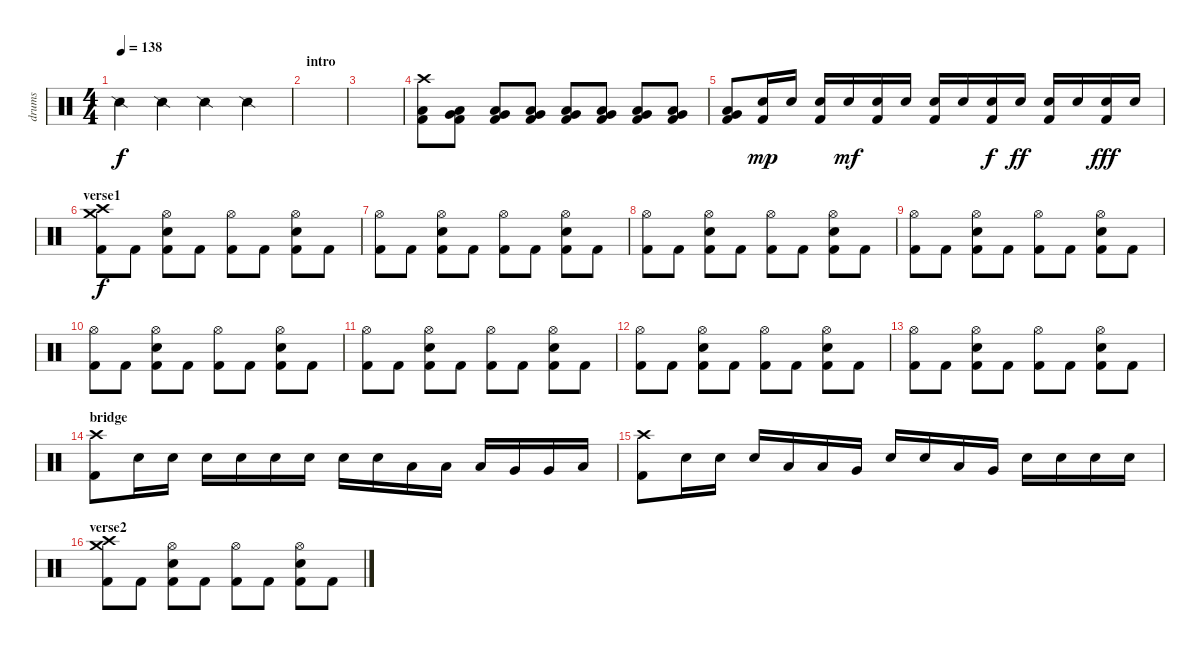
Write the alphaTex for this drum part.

\track ("drums" "drums") {instrument percussion}
\staff {score}
\articulation defaults
\ts (4 4)
\tempo 138
\clef neutral
\ks c "Snare (side stick) 2".4{dy f} "Snare (side stick) 2".4 "Snare (side stick) 2".4 "Snare (side stick) 2".4
|
\section ("" "intro")
|
|
("Crash high (hit)" "Low Floor Tom (hit)" "Kick (hit) 2").8 ("Very Low Tom (hit)" "Low Floor Tom (hit)" "Kick (hit) 2").8 ("Very Low Tom (hit)" "Low Floor Tom (hit)" "Kick (hit) 2").8 ("Very Low Tom (hit)" "Low Floor Tom (hit)" "Kick (hit) 2").8 ("Very Low Tom (hit)" "Low Floor Tom (hit)" "Kick (hit) 2").8 ("Very Low Tom (hit)" "Low Floor Tom (hit)" "Kick (hit) 2").8 ("Very Low Tom (hit)" "Low Floor Tom (hit)" "Kick (hit) 2").8 ("Very Low Tom (hit)" "Low Floor Tom (hit)" "Kick (hit) 2").8 |
("Very Low Tom (hit)" "Low Floor Tom (hit)" "Kick (hit) 2").8 ("Electric Snare (hit)" "Kick (hit) 2").16{dy mp} "Electric Snare (hit)".16 ("Electric Snare (hit)" "Kick (hit) 2").16 "Electric Snare (hit)".16{dy mf} ("Electric Snare (hit)" "Kick (hit) 2").16 "Electric Snare (hit)".16 ("Electric Snare (hit)" "Kick (hit) 2").16 "Electric Snare (hit)".16 ("Electric Snare (hit)" "Kick (hit) 2").16{dy f} "Electric Snare (hit)".16{dy ff} ("Electric Snare (hit)" "Kick (hit) 2").16 "Electric Snare (hit)".16 ("Electric Snare (hit)" "Kick (hit) 2").16{dy fff} "Electric Snare (hit)".16 |
\section ("" "verse1")
("Crash high (hit)" "Crash medium (hit)" "Kick (hit) 2").8{dy f} "Kick (hit) 2".8 ("Hi-Hat (open)" "Electric Snare (hit)" "Kick (hit) 2").8 "Kick (hit) 2".8 ("Hi-Hat (open)" "Kick (hit) 2").8 "Kick (hit) 2".8 ("Hi-Hat (open)" "Electric Snare (hit)" "Kick (hit) 2").8 "Kick (hit) 2".8 |
("Hi-Hat (open)" "Kick (hit) 2").8 "Kick (hit) 2".8 ("Hi-Hat (open)" "Electric Snare (hit)" "Kick (hit) 2").8 "Kick (hit) 2".8 ("Hi-Hat (open)" "Kick (hit) 2").8 "Kick (hit) 2".8 ("Hi-Hat (open)" "Electric Snare (hit)" "Kick (hit) 2").8 "Kick (hit) 2".8 |
("Hi-Hat (open)" "Kick (hit) 2").8 "Kick (hit) 2".8 ("Hi-Hat (open)" "Electric Snare (hit)" "Kick (hit) 2").8 "Kick (hit) 2".8 ("Hi-Hat (open)" "Kick (hit) 2").8 "Kick (hit) 2".8 ("Hi-Hat (open)" "Electric Snare (hit)" "Kick (hit) 2").8 "Kick (hit) 2".8 |
("Hi-Hat (open)" "Kick (hit) 2").8 "Kick (hit) 2".8 ("Hi-Hat (open)" "Electric Snare (hit)" "Kick (hit) 2").8 "Kick (hit) 2".8 ("Hi-Hat (open)" "Kick (hit) 2").8 "Kick (hit) 2".8 ("Hi-Hat (open)" "Electric Snare (hit)" "Kick (hit) 2").8 "Kick (hit) 2".8 |
("Hi-Hat (open)" "Kick (hit) 2").8 "Kick (hit) 2".8 ("Hi-Hat (open)" "Electric Snare (hit)" "Kick (hit) 2").8 "Kick (hit) 2".8 ("Hi-Hat (open)" "Kick (hit) 2").8 "Kick (hit) 2".8 ("Hi-Hat (open)" "Electric Snare (hit)" "Kick (hit) 2").8 "Kick (hit) 2".8 |
("Hi-Hat (open)" "Kick (hit) 2").8 "Kick (hit) 2".8 ("Hi-Hat (open)" "Electric Snare (hit)" "Kick (hit) 2").8 "Kick (hit) 2".8 ("Hi-Hat (open)" "Kick (hit) 2").8 "Kick (hit) 2".8 ("Hi-Hat (open)" "Electric Snare (hit)" "Kick (hit) 2").8 "Kick (hit) 2".8 |
("Hi-Hat (open)" "Kick (hit) 2").8 "Kick (hit) 2".8 ("Hi-Hat (open)" "Electric Snare (hit)" "Kick (hit) 2").8 "Kick (hit) 2".8 ("Hi-Hat (open)" "Kick (hit) 2").8 "Kick (hit) 2".8 ("Hi-Hat (open)" "Electric Snare (hit)" "Kick (hit) 2").8 "Kick (hit) 2".8 |
("Hi-Hat (open)" "Kick (hit) 2").8 "Kick (hit) 2".8 ("Hi-Hat (open)" "Electric Snare (hit)" "Kick (hit) 2").8 "Kick (hit) 2".8 ("Hi-Hat (open)" "Kick (hit) 2").8 "Kick (hit) 2".8 ("Hi-Hat (open)" "Electric Snare (hit)" "Kick (hit) 2").8 "Kick (hit) 2".8 |
\section ("" "bridge")
("Crash high (hit)" "Kick (hit) 2").8 "Electric Snare (hit)".16 "Electric Snare (hit)".16 "Electric Snare (hit)".16 "Electric Snare (hit)".16 "Electric Snare (hit)".16 "Electric Snare (hit)".16 "Electric Snare (hit)".16 "Electric Snare (hit)".16 "Low Tom (hit)".16 "Low Tom (hit)".16 "Low Tom (hit)".16 "Very Low Tom (hit)".16 "Very Low Tom (hit)".16 "Low Floor Tom (hit)".16 |
("Crash high (hit)" "Kick (hit) 2").8 "Electric Snare (hit)".16 "Electric Snare (hit)".16 "Electric Snare (hit)".16 "Low Tom (hit)".16 "Low Tom (hit)".16 "Very Low Tom (hit)".16 "Electric Snare (hit)".16 "Electric Snare (hit)".16 "Low Tom (hit)".16 "Very Low Tom (hit)".16 "Electric Snare (hit)".16 "Electric Snare (hit)".16 "Electric Snare (hit)".16 "Electric Snare (hit)".16 |
\section ("" "verse2")
("Crash high (hit)" "Crash medium (hit)" "Kick (hit) 2").8 "Kick (hit) 2".8 ("Hi-Hat (open)" "Electric Snare (hit)" "Kick (hit) 2").8 "Kick (hit) 2".8 ("Hi-Hat (open)" "Kick (hit) 2").8 "Kick (hit) 2".8 ("Hi-Hat (open)" "Electric Snare (hit)" "Kick (hit) 2").8 "Kick (hit) 2".8
